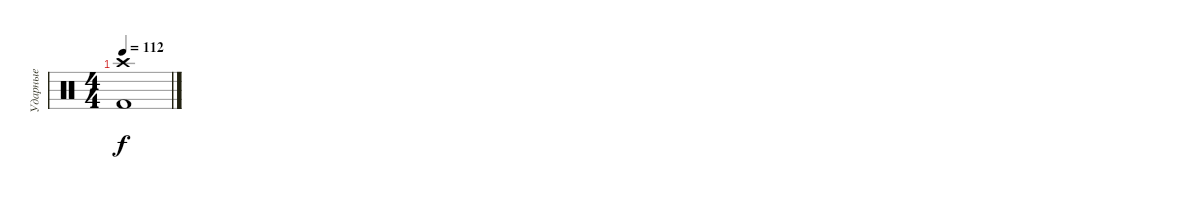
\track ("Ударные" "Ударные") {instrument percussion}
\staff {score}
\articulation defaults
\ts (4 4)
\tempo 112
\clef neutral
\ks c
("Crash high (hit)" "Kick (hit) 2").1{dy f}
